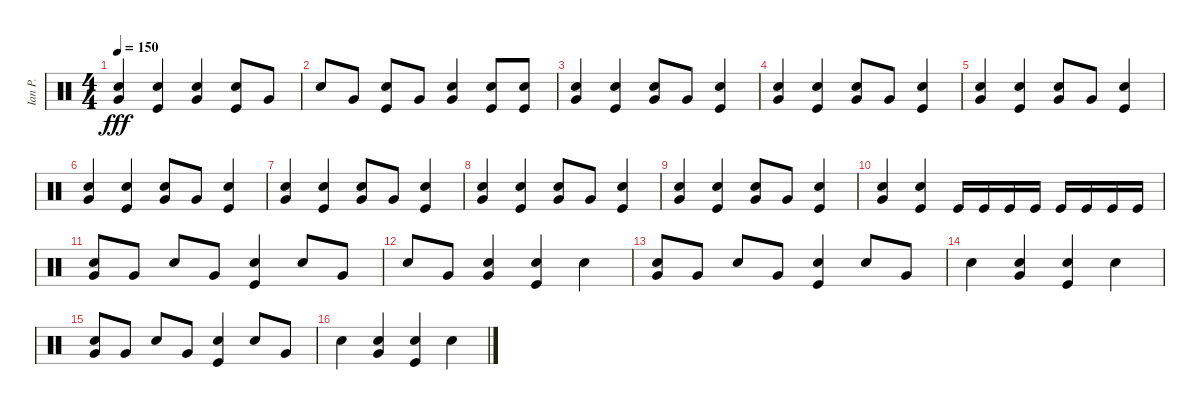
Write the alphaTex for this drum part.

\track ("Ian P." "Ian P.") {instrument percussion}
\staff {score}
\articulation defaults
\ts (4 4)
\tempo 150
\clef neutral
\ks c
("Electric Snare (hit)" "Very Low Tom (hit)").4{dy fff} ("Electric Snare (hit)" "Kick (hit)").4 ("Electric Snare (hit)" "Very Low Tom (hit)").4 ("Electric Snare (hit)" "Kick (hit)").8 "Very Low Tom (hit)".8 |
"Electric Snare (hit)".8 "Very Low Tom (hit)".8 ("Kick (hit)" "Electric Snare (hit)").8 "Very Low Tom (hit)".8 ("Very Low Tom (hit)" "Electric Snare (hit)").4 ("Kick (hit)" "Electric Snare (hit)").8 ("Kick (hit)" "Electric Snare (hit)").8 |
("Very Low Tom (hit)" "Electric Snare (hit)").4 ("Kick (hit)" "Electric Snare (hit)").4 ("Electric Snare (hit)" "Very Low Tom (hit)").8 "Very Low Tom (hit)".8 ("Kick (hit)" "Electric Snare (hit)").4 |
("Very Low Tom (hit)" "Electric Snare (hit)").4 ("Kick (hit)" "Electric Snare (hit)").4 ("Electric Snare (hit)" "Very Low Tom (hit)").8 "Very Low Tom (hit)".8 ("Kick (hit)" "Electric Snare (hit)").4 |
("Very Low Tom (hit)" "Electric Snare (hit)").4 ("Kick (hit)" "Electric Snare (hit)").4 ("Electric Snare (hit)" "Very Low Tom (hit)").8 "Very Low Tom (hit)".8 ("Kick (hit)" "Electric Snare (hit)").4 |
("Very Low Tom (hit)" "Electric Snare (hit)").4 ("Kick (hit)" "Electric Snare (hit)").4 ("Electric Snare (hit)" "Very Low Tom (hit)").8 "Very Low Tom (hit)".8 ("Kick (hit)" "Electric Snare (hit)").4 |
("Very Low Tom (hit)" "Electric Snare (hit)").4 ("Kick (hit)" "Electric Snare (hit)").4 ("Electric Snare (hit)" "Very Low Tom (hit)").8 "Very Low Tom (hit)".8 ("Kick (hit)" "Electric Snare (hit)").4 |
("Very Low Tom (hit)" "Electric Snare (hit)").4 ("Kick (hit)" "Electric Snare (hit)").4 ("Electric Snare (hit)" "Very Low Tom (hit)").8 "Very Low Tom (hit)".8 ("Kick (hit)" "Electric Snare (hit)").4 |
("Very Low Tom (hit)" "Electric Snare (hit)").4 ("Kick (hit)" "Electric Snare (hit)").4 ("Electric Snare (hit)" "Very Low Tom (hit)").8 "Very Low Tom (hit)".8 ("Kick (hit)" "Electric Snare (hit)").4 |
("Very Low Tom (hit)" "Electric Snare (hit)").4 ("Kick (hit)" "Electric Snare (hit)").4 "Kick (hit)".16 "Kick (hit)".16 "Kick (hit)".16 "Kick (hit)".16 "Kick (hit)".16 "Kick (hit)".16 "Kick (hit)".16 "Kick (hit)".16 |
("Very Low Tom (hit)" "Electric Snare (hit)").8 "Very Low Tom (hit)".8 "Electric Snare (hit)".8 "Very Low Tom (hit)".8 ("Electric Snare (hit)" "Kick (hit)").4 "Electric Snare (hit)".8 "Very Low Tom (hit)".8 |
"Electric Snare (hit)".8 "Very Low Tom (hit)".8 ("Very Low Tom (hit)" "Electric Snare (hit)").4 ("Kick (hit)" "Electric Snare (hit)").4 "Electric Snare (hit)".4 |
("Very Low Tom (hit)" "Electric Snare (hit)").8 "Very Low Tom (hit)".8 "Electric Snare (hit)".8 "Very Low Tom (hit)".8 ("Electric Snare (hit)" "Kick (hit)").4 "Electric Snare (hit)".8 "Very Low Tom (hit)".8 |
"Electric Snare (hit)".4 ("Very Low Tom (hit)" "Electric Snare (hit)").4 ("Kick (hit)" "Electric Snare (hit)").4 "Electric Snare (hit)".4 |
("Very Low Tom (hit)" "Electric Snare (hit)").8 "Very Low Tom (hit)".8 "Electric Snare (hit)".8 "Very Low Tom (hit)".8 ("Electric Snare (hit)" "Kick (hit)").4 "Electric Snare (hit)".8 "Very Low Tom (hit)".8 |
"Electric Snare (hit)".4 ("Very Low Tom (hit)" "Electric Snare (hit)").4 ("Kick (hit)" "Electric Snare (hit)").4 "Electric Snare (hit)".4
